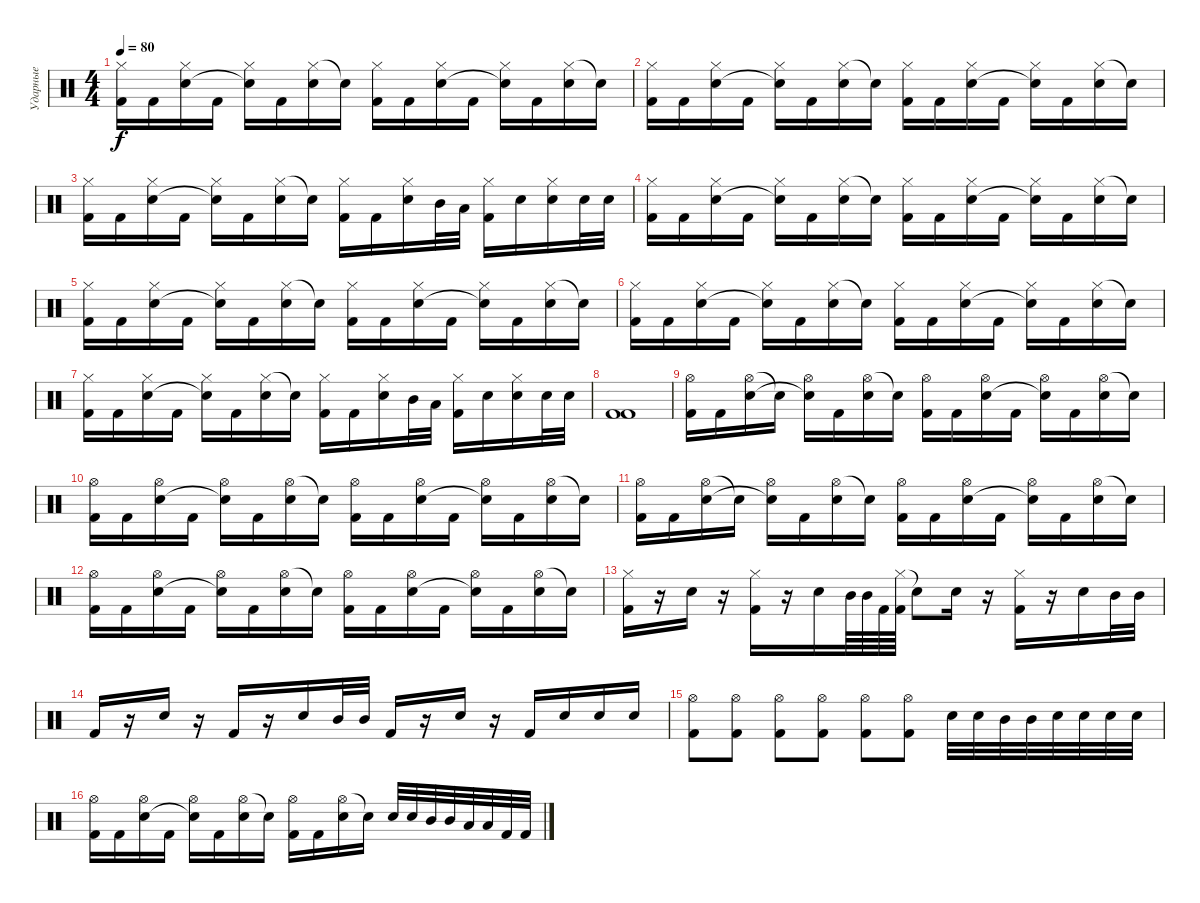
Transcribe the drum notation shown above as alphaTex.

\track ("Ударные" "Ударные") {instrument percussion}
\staff {score}
\articulation defaults
\ts (4 4)
\tempo 80
\clef neutral
\ks c
("Hi-Hat (closed)" "Kick (hit) 2").16{dy f} "Kick (hit) 2".16 ("Hi-Hat (closed)" "Electric Snare (hit)").16 "Kick (hit) 2".16 ("Hi-Hat (closed)" "Snare (hit)"{t}).16 "Kick (hit) 2".16 ("Hi-Hat (closed)" "Electric Snare (hit)").16 "Snare (hit)"{t}.16 ("Hi-Hat (closed)" "Kick (hit) 2").16 "Kick (hit) 2".16 ("Hi-Hat (closed)" "Electric Snare (hit)").16 "Kick (hit) 2".16 ("Hi-Hat (closed)" "Snare (hit)"{t}).16 "Kick (hit) 2".16 ("Hi-Hat (closed)" "Electric Snare (hit)").16 "Snare (hit)"{t}.16 |
("Hi-Hat (closed)" "Kick (hit) 2").16 "Kick (hit) 2".16 ("Hi-Hat (closed)" "Electric Snare (hit)").16 "Kick (hit) 2".16 ("Hi-Hat (closed)" "Snare (hit)"{t}).16 "Kick (hit) 2".16 ("Hi-Hat (closed)" "Electric Snare (hit)").16 "Snare (hit)"{t}.16 ("Hi-Hat (closed)" "Kick (hit) 2").16 "Kick (hit) 2".16 ("Hi-Hat (closed)" "Electric Snare (hit)").16 "Kick (hit) 2".16 ("Hi-Hat (closed)" "Snare (hit)"{t}).16 "Kick (hit) 2".16 ("Hi-Hat (closed)" "Electric Snare (hit)").16 "Snare (hit)"{t}.16 |
("Hi-Hat (closed)" "Kick (hit) 2").16 "Kick (hit) 2".16 ("Hi-Hat (closed)" "Electric Snare (hit)").16 "Kick (hit) 2".16 ("Hi-Hat (closed)" "Snare (hit)"{t}).16 "Kick (hit) 2".16 ("Hi-Hat (closed)" "Electric Snare (hit)").16 "Snare (hit)"{t}.16 ("Hi-Hat (closed)" "Kick (hit) 2").16 "Kick (hit) 2".16 ("Hi-Hat (closed)" "Electric Snare (hit)").16 "Mid Tom (hit)".32 "Low Tom (hit)".32 ("Hi-Hat (closed)" "Kick (hit) 2").16 "Electric Snare (hit)".16 ("Hi-Hat (closed)" "Electric Snare (hit)").16 "Electric Snare (hit)".32 "Electric Snare (hit)".32 |
("Hi-Hat (closed)" "Kick (hit) 2").16 "Kick (hit) 2".16 ("Hi-Hat (closed)" "Electric Snare (hit)").16 "Kick (hit) 2".16 ("Hi-Hat (closed)" "Snare (hit)"{t}).16 "Kick (hit) 2".16 ("Hi-Hat (closed)" "Electric Snare (hit)").16 "Snare (hit)"{t}.16 ("Hi-Hat (closed)" "Kick (hit) 2").16 "Kick (hit) 2".16 ("Hi-Hat (closed)" "Electric Snare (hit)").16 "Kick (hit) 2".16 ("Hi-Hat (closed)" "Snare (hit)"{t}).16 "Kick (hit) 2".16 ("Hi-Hat (closed)" "Electric Snare (hit)").16 "Snare (hit)"{t}.16 |
("Hi-Hat (closed)" "Kick (hit) 2").16 "Kick (hit) 2".16 ("Hi-Hat (closed)" "Electric Snare (hit)").16 "Kick (hit) 2".16 ("Hi-Hat (closed)" "Snare (hit)"{t}).16 "Kick (hit) 2".16 ("Hi-Hat (closed)" "Electric Snare (hit)").16 "Snare (hit)"{t}.16 ("Hi-Hat (closed)" "Kick (hit) 2").16 "Kick (hit) 2".16 ("Hi-Hat (closed)" "Electric Snare (hit)").16 "Kick (hit) 2".16 ("Hi-Hat (closed)" "Snare (hit)"{t}).16 "Kick (hit) 2".16 ("Hi-Hat (closed)" "Electric Snare (hit)").16 "Snare (hit)"{t}.16 |
("Hi-Hat (closed)" "Kick (hit) 2").16 "Kick (hit) 2".16 ("Hi-Hat (closed)" "Electric Snare (hit)").16 "Kick (hit) 2".16 ("Hi-Hat (closed)" "Snare (hit)"{t}).16 "Kick (hit) 2".16 ("Hi-Hat (closed)" "Electric Snare (hit)").16 "Snare (hit)"{t}.16 ("Hi-Hat (closed)" "Kick (hit) 2").16 "Kick (hit) 2".16 ("Hi-Hat (closed)" "Electric Snare (hit)").16 "Kick (hit) 2".16 ("Hi-Hat (closed)" "Snare (hit)"{t}).16 "Kick (hit) 2".16 ("Hi-Hat (closed)" "Electric Snare (hit)").16 "Snare (hit)"{t}.16 |
("Hi-Hat (closed)" "Kick (hit) 2").16 "Kick (hit) 2".16 ("Hi-Hat (closed)" "Electric Snare (hit)").16 "Kick (hit) 2".16 ("Hi-Hat (closed)" "Snare (hit)"{t}).16 "Kick (hit) 2".16 ("Hi-Hat (closed)" "Electric Snare (hit)").16 "Snare (hit)"{t}.16 ("Hi-Hat (closed)" "Kick (hit) 2").16 "Kick (hit) 2".16 ("Hi-Hat (closed)" "Electric Snare (hit)").16 "Mid Tom (hit)".32 "Low Tom (hit)".32 ("Hi-Hat (closed)" "Kick (hit) 2").16 "Electric Snare (hit)".16 ("Hi-Hat (closed)" "Electric Snare (hit)").16 "Electric Snare (hit)".32 "Electric Snare (hit)".32 |
("Kick (hit) 2" "Kick (hit) 2").1 |
("Hi-Hat (open)" "Kick (hit) 2").16 "Kick (hit) 2".16 ("Hi-Hat (open)" "Electric Snare (hit)").16 "Snare (hit)"{t}.16 ("Hi-Hat (open)" "Snare (hit)"{t}).16 "Kick (hit) 2".16 ("Hi-Hat (open)" "Electric Snare (hit)").16 "Snare (hit)"{t}.16 ("Hi-Hat (open)" "Kick (hit) 2").16 "Kick (hit) 2".16 ("Hi-Hat (open)" "Electric Snare (hit)").16 "Kick (hit) 2".16 ("Hi-Hat (open)" "Snare (hit)"{t}).16 "Kick (hit) 2".16 ("Hi-Hat (open)" "Electric Snare (hit)").16 "Snare (hit)"{t}.16 |
("Hi-Hat (open)" "Kick (hit) 2").16 "Kick (hit) 2".16 ("Hi-Hat (open)" "Electric Snare (hit)").16 "Kick (hit) 2".16 ("Hi-Hat (open)" "Snare (hit)"{t}).16 "Kick (hit) 2".16 ("Hi-Hat (open)" "Electric Snare (hit)").16 "Snare (hit)"{t}.16 ("Hi-Hat (open)" "Kick (hit) 2").16 "Kick (hit) 2".16 ("Hi-Hat (open)" "Electric Snare (hit)").16 "Kick (hit) 2".16 ("Hi-Hat (open)" "Snare (hit)"{t}).16 "Kick (hit) 2".16 ("Hi-Hat (open)" "Electric Snare (hit)").16 "Snare (hit)"{t}.16 |
("Hi-Hat (open)" "Kick (hit) 2").16 "Kick (hit) 2".16 ("Hi-Hat (open)" "Electric Snare (hit)").16 "Snare (hit)"{t}.16 ("Hi-Hat (open)" "Snare (hit)"{t}).16 "Kick (hit) 2".16 ("Hi-Hat (open)" "Electric Snare (hit)").16 "Snare (hit)"{t}.16 ("Hi-Hat (open)" "Kick (hit) 2").16 "Kick (hit) 2".16 ("Hi-Hat (open)" "Electric Snare (hit)").16 "Kick (hit) 2".16 ("Hi-Hat (open)" "Snare (hit)"{t}).16 "Kick (hit) 2".16 ("Hi-Hat (open)" "Electric Snare (hit)").16 "Snare (hit)"{t}.16 |
("Hi-Hat (open)" "Kick (hit) 2").16 "Kick (hit) 2".16 ("Hi-Hat (open)" "Electric Snare (hit)").16 "Kick (hit) 2".16 ("Hi-Hat (open)" "Snare (hit)"{t}).16 "Kick (hit) 2".16 ("Hi-Hat (open)" "Electric Snare (hit)").16 "Snare (hit)"{t}.16 ("Hi-Hat (open)" "Kick (hit) 2").16 "Kick (hit) 2".16 ("Hi-Hat (open)" "Electric Snare (hit)").16 "Kick (hit) 2".16 ("Hi-Hat (open)" "Snare (hit)"{t}).16 "Kick (hit) 2".16 ("Hi-Hat (open)" "Electric Snare (hit)").16 "Snare (hit)"{t}.16 |
("Hi-Hat (closed)" "Kick (hit) 2").16 r.16 "Electric Snare (hit)".16 r.16 ("Hi-Hat (closed)" "Kick (hit) 2").16 r.16 "Electric Snare (hit)".16 "Mid Tom (hit)".64 "Mid Tom (hit)".64 "Kick (hit) 2".64 ("Hi-Hat (closed)" "Kick (hit) 2").64 "Snare (hit)"{t}.8 "Electric Snare (hit)".16 r.16 ("Hi-Hat (closed)" "Kick (hit) 2").16 r.16 "Electric Snare (hit)".16 "Mid Tom (hit)".32 "Mid Tom (hit)".32 |
"Kick (hit) 2".16 r.16 "Electric Snare (hit)".16 r.16 "Kick (hit) 2".16 r.16 "Electric Snare (hit)".16 "Mid Tom (hit)".32 "Mid Tom (hit)".32 "Kick (hit) 2".16 r.16 "Electric Snare (hit)".16 r.16 "Kick (hit) 2".16 "Electric Snare (hit)".16 "Electric Snare (hit)".16 "Electric Snare (hit)".16 |
("Hi-Hat (open)" "Kick (hit) 2").8 ("Hi-Hat (open)" "Kick (hit) 2").8 ("Hi-Hat (open)" "Kick (hit) 2").8 ("Hi-Hat (open)" "Kick (hit) 2").8 ("Hi-Hat (open)" "Kick (hit) 2").8 ("Hi-Hat (open)" "Kick (hit) 2").8 "Electric Snare (hit)".32 "Electric Snare (hit)".32 "Mid Tom (hit)".32 "Mid Tom (hit)".32 "Electric Snare (hit)".32 "Electric Snare (hit)".32 "Electric Snare (hit)".32 "Electric Snare (hit)".32 |
("Hi-Hat (open)" "Kick (hit) 2").16 "Kick (hit) 2".16 ("Hi-Hat (open)" "Electric Snare (hit)").16 "Kick (hit) 2".16 ("Hi-Hat (open)" "Snare (hit)"{t}).16 "Kick (hit) 2".16 ("Hi-Hat (open)" "Electric Snare (hit)").16 "Snare (hit)"{t}.16 ("Hi-Hat (open)" "Kick (hit) 2").16 "Kick (hit) 2".16 ("Hi-Hat (open)" "Electric Snare (hit)").16 "Snare (hit)"{t}.16 "Electric Snare (hit)".32 "Electric Snare (hit)".32 "Mid Tom (hit)".32 "Mid Tom (hit)".32 "Low Tom (hit)".32 "Low Tom (hit)".32 "Kick (hit) 2".32 "Kick (hit) 2".32
